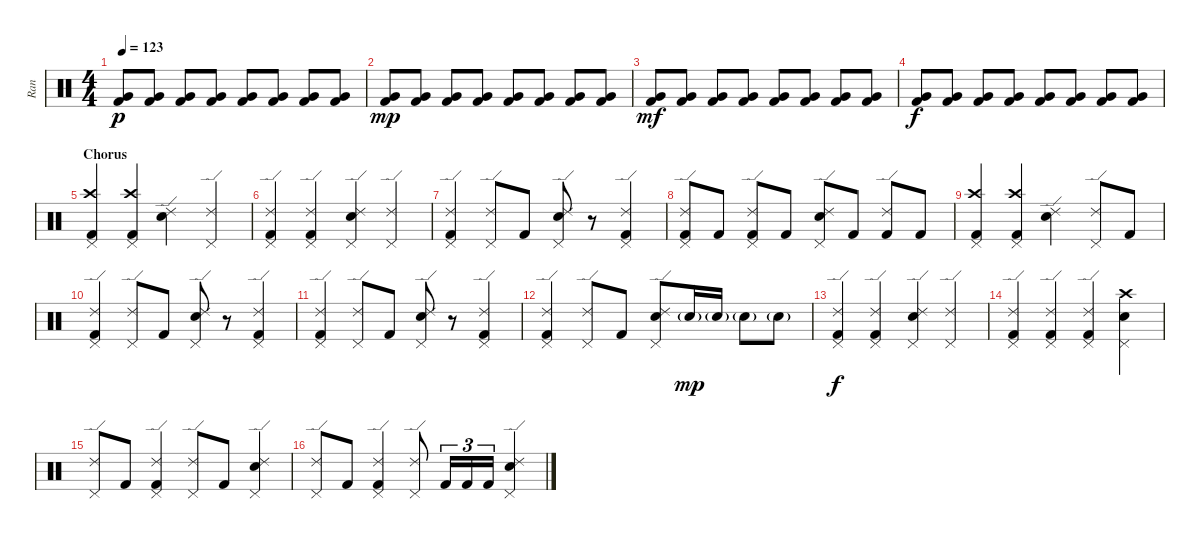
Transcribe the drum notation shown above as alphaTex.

\track ("Ran" "Ran") {instrument percussion}
\staff {score}
\articulation defaults
\ts (4 4)
\tempo 123
\clef neutral
\ks c
("Very Low Tom (hit)" "Kick (hit) 2").8{dy p} ("Very Low Tom (hit)" "Kick (hit) 2").8 ("Very Low Tom (hit)" "Kick (hit) 2").8 ("Very Low Tom (hit)" "Kick (hit) 2").8 ("Very Low Tom (hit)" "Kick (hit) 2").8 ("Very Low Tom (hit)" "Kick (hit) 2").8 ("Very Low Tom (hit)" "Kick (hit) 2").8 ("Very Low Tom (hit)" "Kick (hit) 2").8 |
("Very Low Tom (hit)" "Kick (hit) 2").8{dy mp} ("Very Low Tom (hit)" "Kick (hit) 2").8 ("Very Low Tom (hit)" "Kick (hit) 2").8 ("Very Low Tom (hit)" "Kick (hit) 2").8 ("Very Low Tom (hit)" "Kick (hit) 2").8 ("Very Low Tom (hit)" "Kick (hit) 2").8 ("Very Low Tom (hit)" "Kick (hit) 2").8 ("Very Low Tom (hit)" "Kick (hit) 2").8 |
("Very Low Tom (hit)" "Kick (hit) 2").8{dy mf} ("Very Low Tom (hit)" "Kick (hit) 2").8 ("Very Low Tom (hit)" "Kick (hit) 2").8 ("Very Low Tom (hit)" "Kick (hit) 2").8 ("Very Low Tom (hit)" "Kick (hit) 2").8 ("Very Low Tom (hit)" "Kick (hit) 2").8 ("Very Low Tom (hit)" "Kick (hit) 2").8 ("Very Low Tom (hit)" "Kick (hit) 2").8 |
("Very Low Tom (hit)" "Kick (hit) 2").8{dy f} ("Very Low Tom (hit)" "Kick (hit) 2").8 ("Very Low Tom (hit)" "Kick (hit) 2").8 ("Very Low Tom (hit)" "Kick (hit) 2").8 ("Very Low Tom (hit)" "Kick (hit) 2").8 ("Very Low Tom (hit)" "Kick (hit) 2").8 ("Very Low Tom (hit)" "Kick (hit) 2").8 ("Very Low Tom (hit)" "Kick (hit) 2").8 |
\section ("" "Chorus")
("Crash high (hit)" "Pedal Hi-Hat (hit)" "Kick (hit) 2").4 ("Crash high (hit)" "Pedal Hi-Hat (hit)" "Kick (hit) 2").4 ("Ride (edge) 2" "Snare (hit) 2").4 ("Ride (edge) 2" "Pedal Hi-Hat (hit)").4 |
("Ride (edge) 2" "Pedal Hi-Hat (hit)" "Kick (hit) 2").4 ("Ride (edge) 2" "Pedal Hi-Hat (hit)" "Kick (hit) 2").4 ("Ride (edge) 2" "Snare (hit) 2" "Pedal Hi-Hat (hit)").4 ("Ride (edge) 2" "Pedal Hi-Hat (hit)").4 |
("Ride (edge) 2" "Pedal Hi-Hat (hit)" "Kick (hit) 2").4 ("Ride (edge) 2" "Pedal Hi-Hat (hit)").8 "Kick (hit) 2".8 ("Ride (edge) 2" "Snare (hit) 2" "Pedal Hi-Hat (hit)").8 r.8 ("Ride (edge) 2" "Pedal Hi-Hat (hit)" "Kick (hit) 2").4 |
("Ride (edge) 2" "Pedal Hi-Hat (hit)" "Kick (hit) 2").8 "Kick (hit) 2".8 ("Ride (edge) 2" "Pedal Hi-Hat (hit)" "Kick (hit) 2").8 "Kick (hit) 2".8 ("Ride (edge) 2" "Snare (hit) 2" "Pedal Hi-Hat (hit)").8 "Kick (hit) 2".8 ("Ride (edge) 2" "Kick (hit) 2").8 "Kick (hit) 2".8 |
("Crash high (hit)" "Pedal Hi-Hat (hit)" "Kick (hit) 2").4 ("Crash high (hit)" "Pedal Hi-Hat (hit)" "Kick (hit) 2").4 ("Ride (edge) 2" "Snare (hit) 2").4 ("Ride (edge) 2" "Pedal Hi-Hat (hit)").8 "Kick (hit) 2".8 |
("Ride (edge) 2" "Pedal Hi-Hat (hit)" "Kick (hit) 2").4 ("Ride (edge) 2" "Pedal Hi-Hat (hit)").8 "Kick (hit) 2".8 ("Ride (edge) 2" "Snare (hit) 2" "Pedal Hi-Hat (hit)").8 r.8 ("Ride (edge) 2" "Pedal Hi-Hat (hit)" "Kick (hit) 2").4 |
("Ride (edge) 2" "Pedal Hi-Hat (hit)" "Kick (hit) 2").4 ("Ride (edge) 2" "Pedal Hi-Hat (hit)").8 "Kick (hit) 2".8 ("Ride (edge) 2" "Snare (hit) 2" "Pedal Hi-Hat (hit)").8 r.8 ("Ride (edge) 2" "Pedal Hi-Hat (hit)" "Kick (hit) 2").4 |
("Ride (edge) 2" "Pedal Hi-Hat (hit)" "Kick (hit) 2").4 ("Ride (edge) 2" "Pedal Hi-Hat (hit)").8 "Kick (hit) 2".8 ("Ride (edge) 2" "Snare (hit) 2" "Pedal Hi-Hat (hit)").8 "Snare (hit) 2"{g}.16{dy mp} "Snare (hit) 2"{g}.16 "Snare (hit) 2"{g}.8 "Snare (hit) 2"{g}.8 |
("Ride (edge) 2" "Pedal Hi-Hat (hit)" "Kick (hit) 2").4{dy f} ("Ride (edge) 2" "Pedal Hi-Hat (hit)" "Kick (hit) 2").4 ("Ride (edge) 2" "Snare (hit) 2" "Pedal Hi-Hat (hit)").4 ("Ride (edge) 2" "Pedal Hi-Hat (hit)").4 |
("Ride (edge) 2" "Pedal Hi-Hat (hit)" "Kick (hit) 2").4 ("Ride (edge) 2" "Pedal Hi-Hat (hit)" "Kick (hit) 2").4 ("Ride (edge) 2" "Pedal Hi-Hat (hit)" "Kick (hit) 2").4 ("Crash high (hit)" "Snare (hit) 2" "Pedal Hi-Hat (hit)").4 |
("Ride (edge) 2" "Pedal Hi-Hat (hit)").8 "Kick (hit) 2".8 ("Ride (edge) 2" "Pedal Hi-Hat (hit)" "Kick (hit) 2").4 ("Ride (edge) 2" "Pedal Hi-Hat (hit)").8 "Kick (hit) 2".8 ("Ride (edge) 2" "Snare (hit) 2" "Pedal Hi-Hat (hit)").4 |
("Ride (edge) 2" "Pedal Hi-Hat (hit)").8 "Kick (hit) 2".8 ("Ride (edge) 2" "Pedal Hi-Hat (hit)" "Kick (hit) 2").4 ("Ride (edge) 2" "Pedal Hi-Hat (hit)").8 "Kick (hit) 2".16{tu (3 2)} "Kick (hit) 2".16{tu (3 2)} "Kick (hit) 2".16{tu (3 2)} ("Ride (edge) 2" "Snare (hit) 2" "Pedal Hi-Hat (hit)").4
